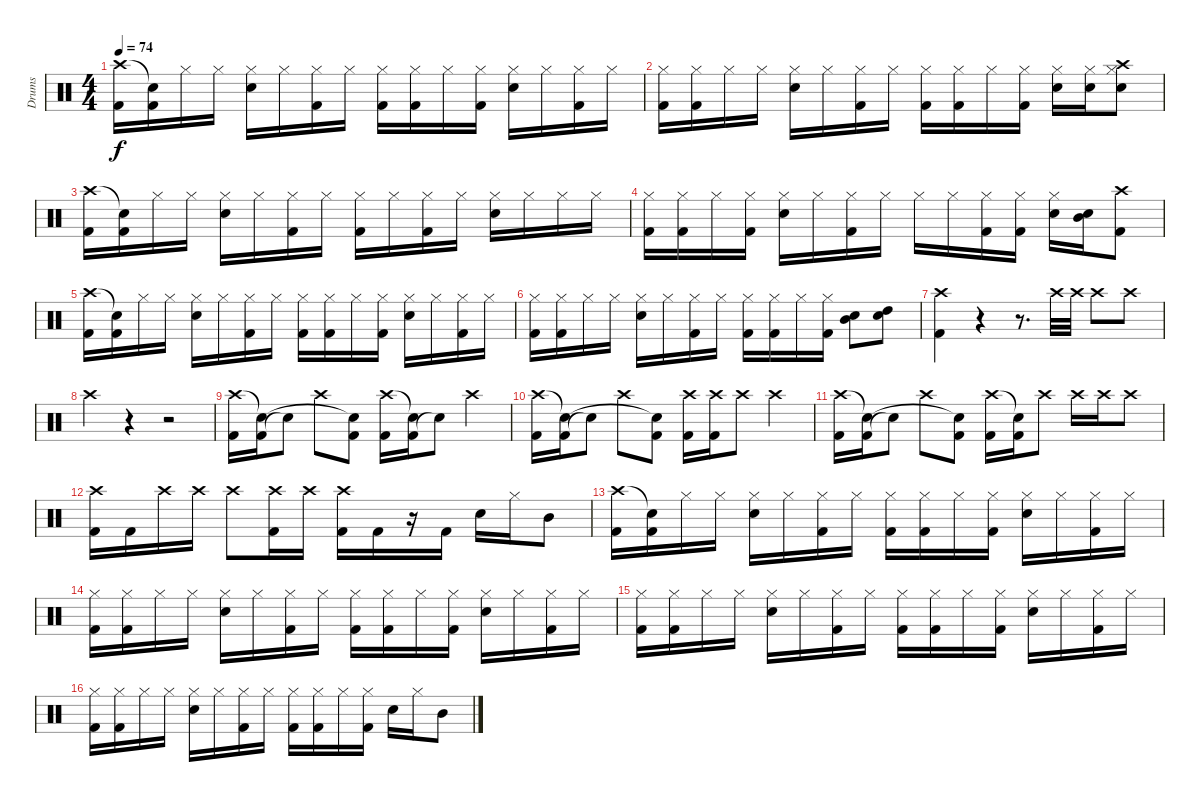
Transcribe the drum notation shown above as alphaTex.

\track ("Drums" "Drums") {instrument percussion}
\staff {score}
\articulation defaults
\ts (4 4)
\tempo 74
\clef neutral
\ks c
("Crash high (hit)" "Kick (hit) 2").16{dy f} ("Snare (hit)"{t} "Kick (hit) 2").16 "Hi-Hat (closed)".16 "Hi-Hat (closed)".16 ("Hi-Hat (closed)" "Electric Snare (hit)").16 "Hi-Hat (closed)".16 ("Hi-Hat (closed)" "Kick (hit) 2").16 "Hi-Hat (closed)".16 ("Hi-Hat (closed)" "Kick (hit) 2").16 ("Hi-Hat (closed)" "Kick (hit) 2").16 "Hi-Hat (closed)".16 ("Hi-Hat (closed)" "Kick (hit) 2").16 ("Hi-Hat (closed)" "Electric Snare (hit)").16 "Hi-Hat (closed)".16 ("Hi-Hat (closed)" "Kick (hit) 2").16 "Hi-Hat (closed)".16 |
("Hi-Hat (closed)" "Kick (hit) 2").16 ("Hi-Hat (closed)" "Kick (hit) 2").16 "Hi-Hat (closed)".16 "Hi-Hat (closed)".16 ("Hi-Hat (closed)" "Electric Snare (hit)").16 "Hi-Hat (closed)".16 ("Hi-Hat (closed)" "Kick (hit) 2").16 "Hi-Hat (closed)".16 ("Hi-Hat (closed)" "Kick (hit) 2").16 ("Hi-Hat (closed)" "Kick (hit) 2").16 "Hi-Hat (closed)".16 ("Hi-Hat (closed)" "Kick (hit) 2").16 ("Hi-Hat (closed)" "Electric Snare (hit)").16 ("Hi-Hat (closed)" "Electric Snare (hit)").16 ("Hi-Hat (closed)" "Crash high (hit)" "Electric Snare (hit)").8 |
("Crash high (hit)" "Kick (hit) 2").16 ("Snare (hit)"{t} "Kick (hit) 2").16 "Hi-Hat (closed)".16 "Hi-Hat (closed)".16 ("Hi-Hat (closed)" "Electric Snare (hit)").16 "Hi-Hat (closed)".16 ("Hi-Hat (closed)" "Kick (hit) 2").16 "Hi-Hat (closed)".16 ("Hi-Hat (closed)" "Kick (hit) 2").16 "Hi-Hat (closed)".16 ("Hi-Hat (closed)" "Kick (hit) 2").16 "Hi-Hat (closed)".16 ("Hi-Hat (closed)" "Electric Snare (hit)").16 "Hi-Hat (closed)".16 "Hi-Hat (closed)".16 "Hi-Hat (closed)".16 |
("Hi-Hat (closed)" "Kick (hit) 2").16 ("Hi-Hat (closed)" "Kick (hit) 2").16 "Hi-Hat (closed)".16 ("Hi-Hat (closed)" "Kick (hit) 2").16 ("Hi-Hat (closed)" "Electric Snare (hit)").16 "Hi-Hat (closed)".16 ("Hi-Hat (closed)" "Kick (hit) 2").16 "Hi-Hat (closed)".16 "Hi-Hat (closed)".16 "Hi-Hat (closed)".16 ("Hi-Hat (closed)" "Kick (hit) 2").16 ("Hi-Hat (closed)" "Kick (hit) 2").16 ("Hi-Hat (closed)" "Electric Snare (hit)").16 ("Mid Tom (hit)" "Electric Snare (hit)").16 ("Crash high (hit)" "Kick (hit) 2").8 |
("Crash high (hit)" "Kick (hit) 2").16 ("Snare (hit)"{t} "Kick (hit) 2").16 "Hi-Hat (closed)".16 "Hi-Hat (closed)".16 ("Hi-Hat (closed)" "Electric Snare (hit)").16 "Hi-Hat (closed)".16 ("Hi-Hat (closed)" "Kick (hit) 2").16 "Hi-Hat (closed)".16 ("Hi-Hat (closed)" "Kick (hit) 2").16 ("Hi-Hat (closed)" "Kick (hit) 2").16 "Hi-Hat (closed)".16 ("Hi-Hat (closed)" "Kick (hit) 2").16 ("Hi-Hat (closed)" "Electric Snare (hit)").16 "Hi-Hat (closed)".16 ("Hi-Hat (closed)" "Kick (hit) 2").16 "Hi-Hat (closed)".16 |
("Hi-Hat (closed)" "Kick (hit) 2").16 ("Hi-Hat (closed)" "Kick (hit) 2").16 "Hi-Hat (closed)".16 "Hi-Hat (closed)".16 ("Hi-Hat (closed)" "Electric Snare (hit)").16 "Hi-Hat (closed)".16 ("Hi-Hat (closed)" "Kick (hit) 2").16 "Hi-Hat (closed)".16 ("Hi-Hat (closed)" "Kick (hit) 2").16 ("Hi-Hat (closed)" "Kick (hit) 2").16 "Hi-Hat (closed)".16 ("Hi-Hat (closed)" "Kick (hit) 2").16 ("Mid Tom (hit)" "Electric Snare (hit)").8 ("High Tom (hit)" "Electric Snare (hit)").8 |
("Crash high (hit)" "Kick (hit) 2").4 r.4 r.8{d} "Crash high (hit)".32 "Crash high (hit)".32 "Crash high (hit)".8 "Crash high (hit)".8 |
"Crash high (hit)".4 r.4 r.2 |
("Kick (hit) 2" "Crash high (hit)").16 ("Kick (hit) 2" "Snare (hit)"{t}).16 "Snare (hit)"{t}.8 "Crash high (hit)".8 ("Kick (hit) 2" "Snare (hit)"{t}).8 ("Kick (hit) 2" "Crash high (hit)").16 ("Kick (hit) 2" "Snare (hit)"{t}).16 "Snare (hit)"{t}.8 "Crash high (hit)".4 |
("Kick (hit) 2" "Crash high (hit)").16 ("Kick (hit) 2" "Snare (hit)"{t}).16 "Snare (hit)"{t}.8 "Crash high (hit)".8 ("Kick (hit) 2" "Snare (hit)"{t}).8 ("Kick (hit) 2" "Crash high (hit)").16 ("Kick (hit) 2" "Crash high (hit)").16 "Crash high (hit)".8 "Crash high (hit)".4 |
("Kick (hit) 2" "Crash high (hit)").16 ("Kick (hit) 2" "Snare (hit)"{t}).16 "Snare (hit)"{t}.8 "Crash high (hit)".8 ("Kick (hit) 2" "Snare (hit)"{t}).8 ("Kick (hit) 2" "Crash high (hit)").16 ("Kick (hit) 2" "Snare (hit)"{t}).16 "Crash high (hit)".8 "Crash high (hit)".16 "Crash high (hit)".16 "Crash high (hit)".8 |
("Kick (hit) 2" "Crash high (hit)").16 "Kick (hit) 2".16 "Crash high (hit)".16 "Crash high (hit)".16 "Crash high (hit)".8 ("Kick (hit) 2" "Crash high (hit)").16 "Crash high (hit)".16 ("Kick (hit) 2" "Crash high (hit)").16 "Kick (hit) 2".16 r.16 "Kick (hit) 2".16 "Electric Snare (hit)".16 "Hi-Hat (closed)".16 "Mid Tom (hit)".8 |
("Crash high (hit)" "Kick (hit) 2").16 ("Snare (hit)"{t} "Kick (hit) 2").16 "Hi-Hat (closed)".16 "Hi-Hat (closed)".16 ("Hi-Hat (closed)" "Electric Snare (hit)").16 "Hi-Hat (closed)".16 ("Hi-Hat (closed)" "Kick (hit) 2").16 "Hi-Hat (closed)".16 ("Hi-Hat (closed)" "Kick (hit) 2").16 ("Hi-Hat (closed)" "Kick (hit) 2").16 "Hi-Hat (closed)".16 ("Hi-Hat (closed)" "Kick (hit) 2").16 ("Hi-Hat (closed)" "Electric Snare (hit)").16 "Hi-Hat (closed)".16 ("Hi-Hat (closed)" "Kick (hit) 2").16 "Hi-Hat (closed)".16 |
("Hi-Hat (closed)" "Kick (hit) 2").16 ("Hi-Hat (closed)" "Kick (hit) 2").16 "Hi-Hat (closed)".16 "Hi-Hat (closed)".16 ("Hi-Hat (closed)" "Electric Snare (hit)").16 "Hi-Hat (closed)".16 ("Hi-Hat (closed)" "Kick (hit) 2").16 "Hi-Hat (closed)".16 ("Hi-Hat (closed)" "Kick (hit) 2").16 ("Hi-Hat (closed)" "Kick (hit) 2").16 "Hi-Hat (closed)".16 ("Hi-Hat (closed)" "Kick (hit) 2").16 ("Hi-Hat (closed)" "Electric Snare (hit)").16 "Hi-Hat (closed)".16 ("Hi-Hat (closed)" "Kick (hit) 2").16 "Hi-Hat (closed)".16 |
("Hi-Hat (closed)" "Kick (hit) 2").16 ("Hi-Hat (closed)" "Kick (hit) 2").16 "Hi-Hat (closed)".16 "Hi-Hat (closed)".16 ("Hi-Hat (closed)" "Electric Snare (hit)").16 "Hi-Hat (closed)".16 ("Hi-Hat (closed)" "Kick (hit) 2").16 "Hi-Hat (closed)".16 ("Hi-Hat (closed)" "Kick (hit) 2").16 ("Hi-Hat (closed)" "Kick (hit) 2").16 "Hi-Hat (closed)".16 ("Hi-Hat (closed)" "Kick (hit) 2").16 ("Hi-Hat (closed)" "Electric Snare (hit)").16 "Hi-Hat (closed)".16 ("Hi-Hat (closed)" "Kick (hit) 2").16 "Hi-Hat (closed)".16 |
("Hi-Hat (closed)" "Kick (hit) 2").16 ("Hi-Hat (closed)" "Kick (hit) 2").16 "Hi-Hat (closed)".16 "Hi-Hat (closed)".16 ("Hi-Hat (closed)" "Electric Snare (hit)").16 "Hi-Hat (closed)".16 ("Hi-Hat (closed)" "Kick (hit) 2").16 "Hi-Hat (closed)".16 ("Hi-Hat (closed)" "Kick (hit) 2").16 ("Hi-Hat (closed)" "Kick (hit) 2").16 "Hi-Hat (closed)".16 ("Hi-Hat (closed)" "Kick (hit) 2").16 "Electric Snare (hit)".16 "Hi-Hat (closed)".16 "Mid Tom (hit)".8
